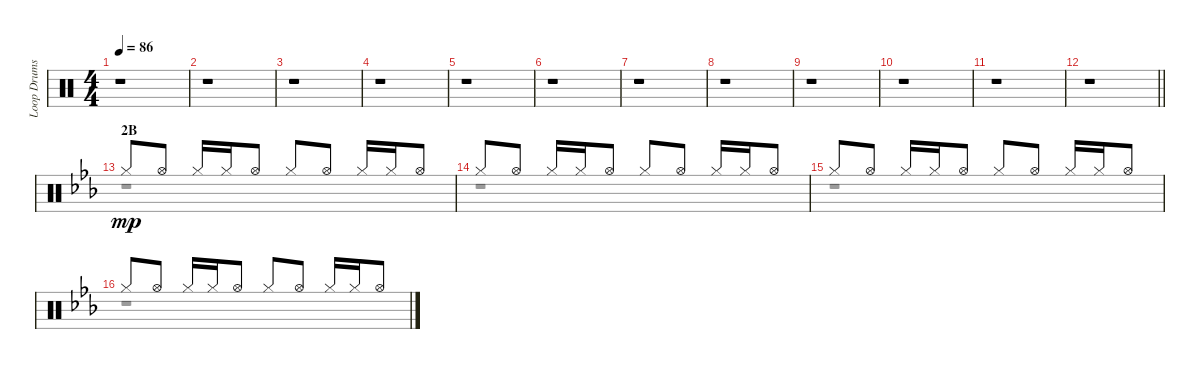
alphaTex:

\track ("Loop Drums II" "Loop Drums") {instrument percussion}
\staff {score}
\articulation defaults
\voice
\ts (4 4)
\tempo 86
\clef neutral
\ks c
r.1{dy mp} |
r.1 |
r.1 |
r.1 |
r.1 |
r.1 |
r.1 |
r.1 |
r.1 |
r.1 |
r.1 |
\barLineRight lightlight
r.1 |
\section ("" "2B")
\ks eb "Hi-Hat (closed)".8 "Hi-Hat (open)".8 "Hi-Hat (closed)".16 "Hi-Hat (closed)".16 "Hi-Hat (open)".8 "Hi-Hat (closed)".8 "Hi-Hat (open)".8 "Hi-Hat (closed)".16 "Hi-Hat (closed)".16 "Hi-Hat (open)".8
|
"Hi-Hat (closed)".8 "Hi-Hat (open)".8 "Hi-Hat (closed)".16 "Hi-Hat (closed)".16 "Hi-Hat (open)".8 "Hi-Hat (closed)".8 "Hi-Hat (open)".8 "Hi-Hat (closed)".16 "Hi-Hat (closed)".16 "Hi-Hat (open)".8 |
"Hi-Hat (closed)".8 "Hi-Hat (open)".8 "Hi-Hat (closed)".16 "Hi-Hat (closed)".16 "Hi-Hat (open)".8 "Hi-Hat (closed)".8 "Hi-Hat (open)".8 "Hi-Hat (closed)".16 "Hi-Hat (closed)".16 "Hi-Hat (open)".8 |
"Hi-Hat (closed)".8 "Hi-Hat (open)".8 "Hi-Hat (closed)".16 "Hi-Hat (closed)".16 "Hi-Hat (open)".8 "Hi-Hat (closed)".8 "Hi-Hat (open)".8 "Hi-Hat (closed)".16 "Hi-Hat (closed)".16 "Hi-Hat (open)".8
\voice
\clef neutral
\ottava regular
\simile none
\ks c
r.1{dy mp} |
r.1 |
r.1 |
r.1 |
r.1 |
r.1 |
r.1 |
r.1 |
r.1 |
r.1 |
r.1 |
\barLineRight lightlight
r.1 |
\ks eb
r.1 |
r.1 |
r.1 |
r.1
